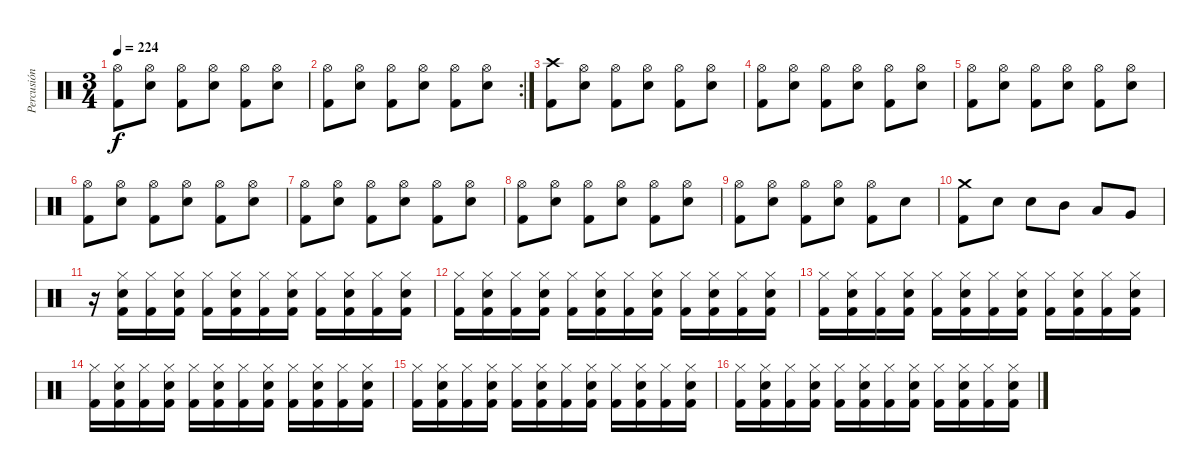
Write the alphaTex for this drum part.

\track ("Percusión" "Percusión") {instrument percussion}
\staff {score}
\articulation defaults
\ts (3 4)
\tempo 224
\clef neutral
\ks c
("Hi-Hat (open)" "Kick (hit) 2").8{dy f} ("Hi-Hat (open)" "Electric Snare (hit)").8 ("Hi-Hat (open)" "Kick (hit) 2").8 ("Hi-Hat (open)" "Electric Snare (hit)").8 ("Hi-Hat (open)" "Kick (hit) 2").8 ("Hi-Hat (open)" "Electric Snare (hit)").8 |
\rc 2
("Hi-Hat (open)" "Kick (hit) 2").8 ("Hi-Hat (open)" "Electric Snare (hit)").8 ("Hi-Hat (open)" "Kick (hit) 2").8 ("Hi-Hat (open)" "Electric Snare (hit)").8 ("Hi-Hat (open)" "Kick (hit) 2").8 ("Hi-Hat (open)" "Electric Snare (hit)").8 |
("Crash high (hit)" "Kick (hit) 2").8 ("Hi-Hat (open)" "Electric Snare (hit)").8 ("Hi-Hat (open)" "Kick (hit) 2").8 ("Hi-Hat (open)" "Electric Snare (hit)").8 ("Hi-Hat (open)" "Kick (hit) 2").8 ("Hi-Hat (open)" "Electric Snare (hit)").8 |
("Hi-Hat (open)" "Kick (hit) 2").8 ("Hi-Hat (open)" "Electric Snare (hit)").8 ("Hi-Hat (open)" "Kick (hit) 2").8 ("Hi-Hat (open)" "Electric Snare (hit)").8 ("Hi-Hat (open)" "Kick (hit) 2").8 ("Hi-Hat (open)" "Electric Snare (hit)").8 |
("Hi-Hat (open)" "Kick (hit) 2").8 ("Hi-Hat (open)" "Electric Snare (hit)").8 ("Hi-Hat (open)" "Kick (hit) 2").8 ("Hi-Hat (open)" "Electric Snare (hit)").8 ("Hi-Hat (open)" "Kick (hit) 2").8 ("Hi-Hat (open)" "Electric Snare (hit)").8 |
("Hi-Hat (open)" "Kick (hit) 2").8 ("Hi-Hat (open)" "Electric Snare (hit)").8 ("Hi-Hat (open)" "Kick (hit) 2").8 ("Hi-Hat (open)" "Electric Snare (hit)").8 ("Hi-Hat (open)" "Kick (hit) 2").8 ("Hi-Hat (open)" "Electric Snare (hit)").8 |
("Hi-Hat (open)" "Kick (hit) 2").8 ("Hi-Hat (open)" "Electric Snare (hit)").8 ("Hi-Hat (open)" "Kick (hit) 2").8 ("Hi-Hat (open)" "Electric Snare (hit)").8 ("Hi-Hat (open)" "Kick (hit) 2").8 ("Hi-Hat (open)" "Electric Snare (hit)").8 |
("Hi-Hat (open)" "Kick (hit) 2").8 ("Hi-Hat (open)" "Electric Snare (hit)").8 ("Hi-Hat (open)" "Kick (hit) 2").8 ("Hi-Hat (open)" "Electric Snare (hit)").8 ("Hi-Hat (open)" "Kick (hit) 2").8 ("Hi-Hat (open)" "Electric Snare (hit)").8 |
("Hi-Hat (open)" "Kick (hit) 2").8 ("Hi-Hat (open)" "Electric Snare (hit)").8 ("Hi-Hat (open)" "Kick (hit) 2").8 ("Hi-Hat (open)" "Electric Snare (hit)").8 ("Hi-Hat (open)" "Kick (hit) 2").8 "Electric Snare (hit)".8 |
("Crash medium (hit)" "Kick (hit) 2").8 "Electric Snare (hit)".8 "Electric Snare (hit)".8 "Mid Tom (hit)".8 "Low Tom (hit)".8 "Very Low Tom (hit)".8 |
r.16 ("Hi-Hat (closed)" "Electric Snare (hit)" "Kick (hit) 2").16 ("Hi-Hat (closed)" "Kick (hit) 2").16 ("Hi-Hat (closed)" "Electric Snare (hit)" "Kick (hit) 2").16 ("Hi-Hat (closed)" "Kick (hit) 2").16 ("Hi-Hat (closed)" "Electric Snare (hit)" "Kick (hit) 2").16 ("Hi-Hat (closed)" "Kick (hit) 2").16 ("Hi-Hat (closed)" "Electric Snare (hit)" "Kick (hit) 2").16 ("Hi-Hat (closed)" "Kick (hit) 2").16 ("Hi-Hat (closed)" "Electric Snare (hit)" "Kick (hit) 2").16 ("Hi-Hat (closed)" "Kick (hit) 2").16 ("Hi-Hat (closed)" "Electric Snare (hit)" "Kick (hit) 2").16 |
("Hi-Hat (closed)" "Kick (hit) 2").16 ("Hi-Hat (closed)" "Electric Snare (hit)" "Kick (hit) 2").16 ("Hi-Hat (closed)" "Kick (hit) 2").16 ("Hi-Hat (closed)" "Electric Snare (hit)" "Kick (hit) 2").16 ("Hi-Hat (closed)" "Kick (hit) 2").16 ("Hi-Hat (closed)" "Electric Snare (hit)" "Kick (hit) 2").16 ("Hi-Hat (closed)" "Kick (hit) 2").16 ("Hi-Hat (closed)" "Electric Snare (hit)" "Kick (hit) 2").16 ("Hi-Hat (closed)" "Kick (hit) 2").16 ("Hi-Hat (closed)" "Electric Snare (hit)" "Kick (hit) 2").16 ("Hi-Hat (closed)" "Kick (hit) 2").16 ("Hi-Hat (closed)" "Electric Snare (hit)" "Kick (hit) 2").16 |
("Hi-Hat (closed)" "Kick (hit) 2").16 ("Hi-Hat (closed)" "Electric Snare (hit)" "Kick (hit) 2").16 ("Hi-Hat (closed)" "Kick (hit) 2").16 ("Hi-Hat (closed)" "Electric Snare (hit)" "Kick (hit) 2").16 ("Hi-Hat (closed)" "Kick (hit) 2").16 ("Hi-Hat (closed)" "Electric Snare (hit)" "Kick (hit) 2").16 ("Hi-Hat (closed)" "Kick (hit) 2").16 ("Hi-Hat (closed)" "Electric Snare (hit)" "Kick (hit) 2").16 ("Hi-Hat (closed)" "Kick (hit) 2").16 ("Hi-Hat (closed)" "Electric Snare (hit)" "Kick (hit) 2").16 ("Hi-Hat (closed)" "Kick (hit) 2").16 ("Hi-Hat (closed)" "Electric Snare (hit)" "Kick (hit) 2").16 |
("Hi-Hat (closed)" "Kick (hit) 2").16 ("Hi-Hat (closed)" "Electric Snare (hit)" "Kick (hit) 2").16 ("Hi-Hat (closed)" "Kick (hit) 2").16 ("Hi-Hat (closed)" "Electric Snare (hit)" "Kick (hit) 2").16 ("Hi-Hat (closed)" "Kick (hit) 2").16 ("Hi-Hat (closed)" "Electric Snare (hit)" "Kick (hit) 2").16 ("Hi-Hat (closed)" "Kick (hit) 2").16 ("Hi-Hat (closed)" "Electric Snare (hit)" "Kick (hit) 2").16 ("Hi-Hat (closed)" "Kick (hit) 2").16 ("Hi-Hat (closed)" "Electric Snare (hit)" "Kick (hit) 2").16 ("Hi-Hat (closed)" "Kick (hit) 2").16 ("Hi-Hat (closed)" "Electric Snare (hit)" "Kick (hit) 2").16 |
("Hi-Hat (closed)" "Kick (hit) 2").16 ("Hi-Hat (closed)" "Electric Snare (hit)" "Kick (hit) 2").16 ("Hi-Hat (closed)" "Kick (hit) 2").16 ("Hi-Hat (closed)" "Electric Snare (hit)" "Kick (hit) 2").16 ("Hi-Hat (closed)" "Kick (hit) 2").16 ("Hi-Hat (closed)" "Electric Snare (hit)" "Kick (hit) 2").16 ("Hi-Hat (closed)" "Kick (hit) 2").16 ("Hi-Hat (closed)" "Electric Snare (hit)" "Kick (hit) 2").16 ("Hi-Hat (closed)" "Kick (hit) 2").16 ("Hi-Hat (closed)" "Electric Snare (hit)" "Kick (hit) 2").16 ("Hi-Hat (closed)" "Kick (hit) 2").16 ("Hi-Hat (closed)" "Electric Snare (hit)" "Kick (hit) 2").16 |
("Hi-Hat (closed)" "Kick (hit) 2").16 ("Hi-Hat (closed)" "Electric Snare (hit)" "Kick (hit) 2").16 ("Hi-Hat (closed)" "Kick (hit) 2").16 ("Hi-Hat (closed)" "Electric Snare (hit)" "Kick (hit) 2").16 ("Hi-Hat (closed)" "Kick (hit) 2").16 ("Hi-Hat (closed)" "Electric Snare (hit)" "Kick (hit) 2").16 ("Hi-Hat (closed)" "Kick (hit) 2").16 ("Hi-Hat (closed)" "Electric Snare (hit)" "Kick (hit) 2").16 ("Hi-Hat (closed)" "Kick (hit) 2").16 ("Hi-Hat (closed)" "Electric Snare (hit)" "Kick (hit) 2").16 ("Hi-Hat (closed)" "Kick (hit) 2").16 ("Hi-Hat (closed)" "Electric Snare (hit)" "Kick (hit) 2").16
